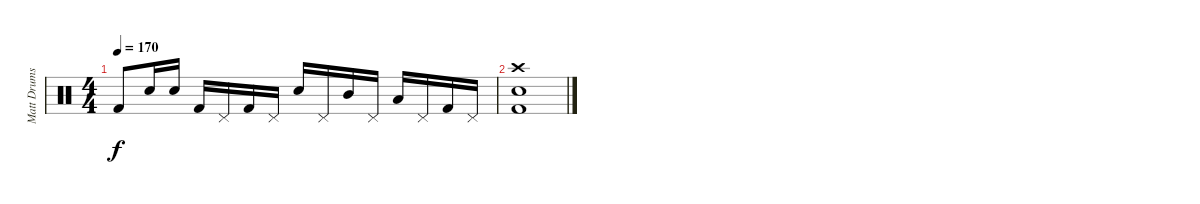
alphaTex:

\track ("Matt Drums" "Matt Drums") {instrument percussion}
\staff {score}
\articulation defaults
\ts (4 4)
\tempo 170
\clef neutral
\ks c "Kick (hit) 2".8{dy f} "Electric Snare (hit)".16 "Electric Snare (hit)".16 "Kick (hit) 2".16 "Pedal Hi-Hat (hit)".16 "Kick (hit) 2".16 "Pedal Hi-Hat (hit)".16 "Electric Snare (hit)".16 "Pedal Hi-Hat (hit)".16 "Mid Tom (hit)".16 "Pedal Hi-Hat (hit)".16 "Low Tom (hit)".16 "Pedal Hi-Hat (hit)".16 "Kick (hit) 2".16 "Pedal Hi-Hat (hit)".16
|
("Crash high (hit)" "Electric Snare (hit)" "Kick (hit) 2").1
